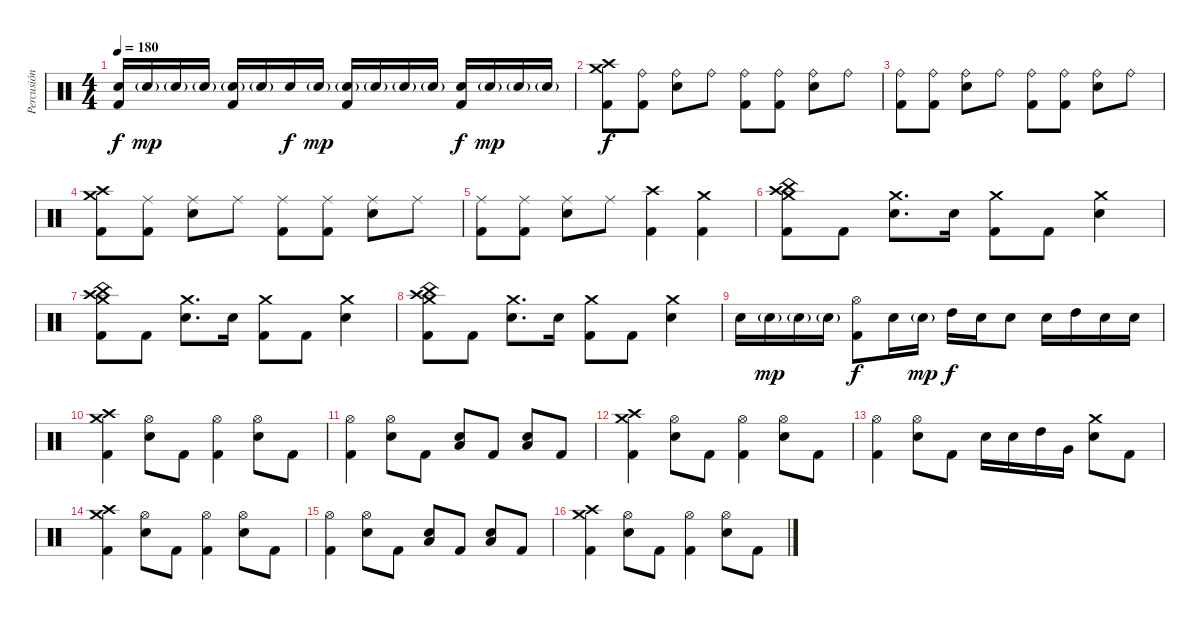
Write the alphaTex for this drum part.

\track ("Percusión" "Percusión") {instrument percussion}
\staff {score}
\articulation defaults
\ts (4 4)
\tempo 180
\clef neutral
\ks c
("Electric Snare (hit)" "Kick (hit) 2").16{dy f} "Electric Snare (hit)"{g}.16{dy mp} "Electric Snare (hit)"{g}.16 "Electric Snare (hit)"{g}.16 ("Electric Snare (hit)"{g} "Kick (hit) 2").16 "Electric Snare (hit)"{g}.16 "Electric Snare (hit)".16{dy f} "Electric Snare (hit)"{g}.16{dy mp} ("Electric Snare (hit)"{g} "Kick (hit) 2").16 "Electric Snare (hit)"{g}.16 "Electric Snare (hit)"{g}.16 "Electric Snare (hit)"{g}.16 ("Electric Snare (hit)" "Kick (hit) 2").16{dy f} "Electric Snare (hit)"{g}.16{dy mp} "Electric Snare (hit)"{g}.16 "Electric Snare (hit)"{g}.16 |
("Crash medium (hit)" "Crash high (hit)" "Kick (hit) 2").8{dy f volume 13} ("Ride (bell)" "Kick (hit) 2").8 ("Ride (bell)" "Electric Snare (hit)").8 "Ride (bell)".8 ("Ride (bell)" "Kick (hit) 2").8 ("Ride (bell)" "Kick (hit) 2").8 ("Ride (bell)" "Electric Snare (hit)").8 "Ride (bell)".8 |
("Ride (bell)" "Kick (hit) 2").8 ("Ride (bell)" "Kick (hit) 2").8 ("Ride (bell)" "Electric Snare (hit)").8 "Ride (bell)".8 ("Ride (bell)" "Kick (hit) 2").8 ("Ride (bell)" "Kick (hit) 2").8 ("Ride (bell)" "Electric Snare (hit)").8 "Ride (bell)".8 |
("Crash medium (hit)" "Crash high (hit)" "Kick (hit) 2").8 ("Ride (middle)" "Kick (hit) 2").8 ("Ride (middle)" "Electric Snare (hit)").8 "Ride (middle)".8 ("Ride (middle)" "Kick (hit) 2").8 ("Ride (middle)" "Kick (hit) 2").8 ("Ride (middle)" "Electric Snare (hit)").8 "Ride (middle)".8 |
("Ride (middle)" "Kick (hit) 2").8 ("Ride (middle)" "Kick (hit) 2").8 ("Ride (middle)" "Electric Snare (hit)").8 "Ride (middle)".8 ("Crash high (hit)" "Kick (hit) 2").4 ("Crash medium (hit)" "Kick (hit) 2").4 |
("Crash high (hit)" "Crash medium (hit)" "China (hit)" "Kick (hit) 2").8 "Kick (hit) 2".8 ("Crash medium (hit)" "Electric Snare (hit)").8{d} "Electric Snare (hit)".16 ("Crash medium (hit)" "Kick (hit) 2").8 "Kick (hit) 2".8 ("Crash medium (hit)" "Electric Snare (hit)").4 |
("Crash high (hit)" "Crash medium (hit)" "China (hit)" "Kick (hit) 2").8 "Kick (hit) 2".8 ("Crash medium (hit)" "Electric Snare (hit)").8{d} "Electric Snare (hit)".16 ("Crash medium (hit)" "Kick (hit) 2").8 "Kick (hit) 2".8 ("Crash medium (hit)" "Electric Snare (hit)").4 |
("Crash high (hit)" "Crash medium (hit)" "China (hit)" "Kick (hit) 2").8 "Kick (hit) 2".8 ("Crash medium (hit)" "Electric Snare (hit)").8{d} "Electric Snare (hit)".16 ("Crash medium (hit)" "Kick (hit) 2").8 "Kick (hit) 2".8 ("Crash medium (hit)" "Electric Snare (hit)").4 |
"Electric Snare (hit)".16 "Electric Snare (hit)"{g}.16{dy mp} "Electric Snare (hit)"{g}.16 "Electric Snare (hit)"{g}.16 ("Hi-Hat (open)" "Kick (hit) 2").8{dy f} "Electric Snare (hit)".16 "Electric Snare (hit)"{g}.16{dy mp} "High Tom (hit)".16{dy f} "Electric Snare (hit)".16 "Electric Snare (hit)".8 "Electric Snare (hit)".16 "High Tom (hit)".16 "Electric Snare (hit)".16 "Electric Snare (hit)".16 |
("Crash high (hit)" "Crash medium (hit)" "Kick (hit) 2").4 ("Hi-Hat (open)" "Electric Snare (hit)").8 "Kick (hit) 2".8 ("Hi-Hat (open)" "Kick (hit) 2").4 ("Hi-Hat (open)" "Electric Snare (hit)").8 "Kick (hit) 2".8 |
("Hi-Hat (open)" "Kick (hit) 2").4 ("Hi-Hat (open)" "Electric Snare (hit)").8 "Kick (hit) 2".8 ("Electric Snare (hit)" "Low Floor Tom (hit)").8 "Kick (hit) 2".8 ("Electric Snare (hit)" "Low Floor Tom (hit)").8 "Kick (hit) 2".8 |
("Crash high (hit)" "Crash medium (hit)" "Kick (hit) 2").4 ("Hi-Hat (open)" "Electric Snare (hit)").8 "Kick (hit) 2".8 ("Hi-Hat (open)" "Kick (hit) 2").4 ("Hi-Hat (open)" "Electric Snare (hit)").8 "Kick (hit) 2".8 |
("Hi-Hat (open)" "Kick (hit) 2").4 ("Hi-Hat (open)" "Electric Snare (hit)").8 "Kick (hit) 2".8 "Electric Snare (hit)".16 "Electric Snare (hit)".16 "High Tom (hit)".16 "Very Low Tom (hit)".16 ("Crash medium (hit)" "Electric Snare (hit)").8 "Kick (hit) 2".8 |
("Crash high (hit)" "Crash medium (hit)" "Kick (hit) 2").4 ("Hi-Hat (open)" "Electric Snare (hit)").8 "Kick (hit) 2".8 ("Hi-Hat (open)" "Kick (hit) 2").4 ("Hi-Hat (open)" "Electric Snare (hit)").8 "Kick (hit) 2".8 |
("Hi-Hat (open)" "Kick (hit) 2").4 ("Hi-Hat (open)" "Electric Snare (hit)").8 "Kick (hit) 2".8 ("Electric Snare (hit)" "Low Floor Tom (hit)").8 "Kick (hit) 2".8 ("Electric Snare (hit)" "Low Floor Tom (hit)").8 "Kick (hit) 2".8 |
("Crash high (hit)" "Crash medium (hit)" "Kick (hit) 2").4 ("Hi-Hat (open)" "Electric Snare (hit)").8 "Kick (hit) 2".8 ("Hi-Hat (open)" "Kick (hit) 2").4 ("Hi-Hat (open)" "Electric Snare (hit)").8 "Kick (hit) 2".8
